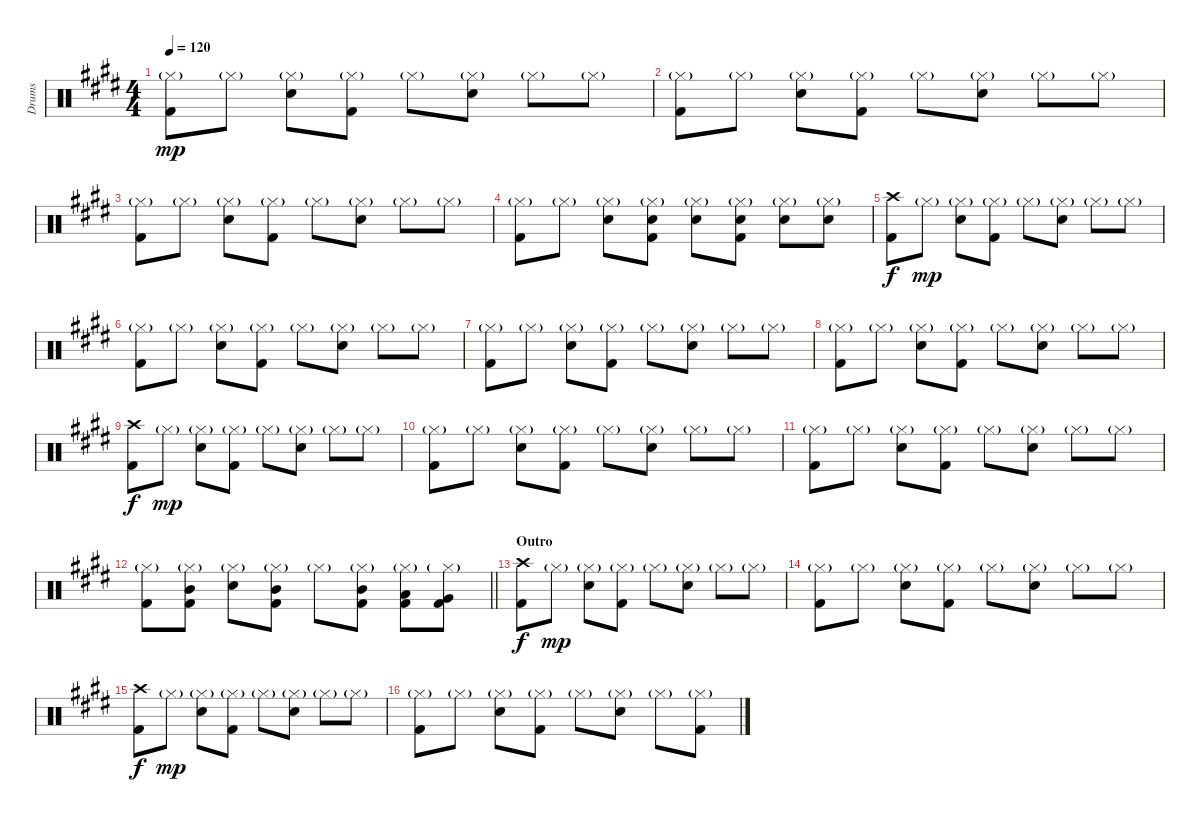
\track ("Drums" "Drums") {instrument percussion}
\staff {score}
\articulation defaults
\ts (4 4)
\tempo 120
\clef neutral
\ks e
("Hi-Hat (closed)"{g} "Kick (hit) 2").8{dy mp} "Hi-Hat (closed)"{g}.8 ("Hi-Hat (closed)"{g} "Snare (hit) 2").8 ("Hi-Hat (closed)"{g} "Kick (hit) 2").8 "Hi-Hat (closed)"{g}.8 ("Hi-Hat (closed)"{g} "Snare (hit) 2").8 "Hi-Hat (closed)"{g}.8 "Hi-Hat (closed)"{g}.8 |
("Hi-Hat (closed)"{g} "Kick (hit) 2").8 "Hi-Hat (closed)"{g}.8 ("Hi-Hat (closed)"{g} "Snare (hit) 2").8 ("Hi-Hat (closed)"{g} "Kick (hit) 2").8 "Hi-Hat (closed)"{g}.8 ("Hi-Hat (closed)"{g} "Snare (hit) 2").8 "Hi-Hat (closed)"{g}.8 "Hi-Hat (closed)"{g}.8 |
("Hi-Hat (closed)"{g} "Kick (hit) 2").8 "Hi-Hat (closed)"{g}.8 ("Hi-Hat (closed)"{g} "Snare (hit) 2").8 ("Hi-Hat (closed)"{g} "Kick (hit) 2").8 "Hi-Hat (closed)"{g}.8 ("Hi-Hat (closed)"{g} "Snare (hit) 2").8 "Hi-Hat (closed)"{g}.8 "Hi-Hat (closed)"{g}.8 |
("Hi-Hat (closed)"{g} "Kick (hit) 2").8 "Hi-Hat (closed)"{g}.8 ("Hi-Hat (closed)"{g} "Snare (hit) 2").8 ("Hi-Hat (closed)"{g} "Snare (hit) 2" "Kick (hit) 2").8 ("Hi-Hat (closed)"{g} "Snare (hit) 2").8 ("Hi-Hat (closed)"{g} "Snare (hit) 2" "Kick (hit) 2").8 ("Hi-Hat (closed)"{g} "Snare (hit) 2").8 ("Hi-Hat (closed)"{g} "Snare (hit) 2").8 |
("Crash high (hit)" "Kick (hit) 2").8{dy f} "Hi-Hat (closed)"{g}.8{dy mp} ("Hi-Hat (closed)"{g} "Snare (hit) 2").8 ("Hi-Hat (closed)"{g} "Kick (hit) 2").8 "Hi-Hat (closed)"{g}.8 ("Hi-Hat (closed)"{g} "Snare (hit) 2").8 "Hi-Hat (closed)"{g}.8 "Hi-Hat (closed)"{g}.8 |
("Hi-Hat (closed)"{g} "Kick (hit) 2").8 "Hi-Hat (closed)"{g}.8 ("Hi-Hat (closed)"{g} "Snare (hit) 2").8 ("Hi-Hat (closed)"{g} "Kick (hit) 2").8 "Hi-Hat (closed)"{g}.8 ("Hi-Hat (closed)"{g} "Snare (hit) 2").8 "Hi-Hat (closed)"{g}.8 "Hi-Hat (closed)"{g}.8 |
("Hi-Hat (closed)"{g} "Kick (hit) 2").8 "Hi-Hat (closed)"{g}.8 ("Hi-Hat (closed)"{g} "Snare (hit) 2").8 ("Hi-Hat (closed)"{g} "Kick (hit) 2").8 "Hi-Hat (closed)"{g}.8 ("Hi-Hat (closed)"{g} "Snare (hit) 2").8 "Hi-Hat (closed)"{g}.8 "Hi-Hat (closed)"{g}.8 |
("Hi-Hat (closed)"{g} "Kick (hit) 2").8 "Hi-Hat (closed)"{g}.8 ("Hi-Hat (closed)"{g} "Snare (hit) 2").8 ("Hi-Hat (closed)"{g} "Kick (hit) 2").8 "Hi-Hat (closed)"{g}.8 ("Hi-Hat (closed)"{g} "Snare (hit) 2").8 "Hi-Hat (closed)"{g}.8 "Hi-Hat (closed)"{g}.8 |
("Crash high (hit)" "Kick (hit) 2").8{dy f} "Hi-Hat (closed)"{g}.8{dy mp} ("Hi-Hat (closed)"{g} "Snare (hit) 2").8 ("Hi-Hat (closed)"{g} "Kick (hit) 2").8 "Hi-Hat (closed)"{g}.8 ("Hi-Hat (closed)"{g} "Snare (hit) 2").8 "Hi-Hat (closed)"{g}.8 "Hi-Hat (closed)"{g}.8 |
("Hi-Hat (closed)"{g} "Kick (hit) 2").8 "Hi-Hat (closed)"{g}.8 ("Hi-Hat (closed)"{g} "Snare (hit) 2").8 ("Hi-Hat (closed)"{g} "Kick (hit) 2").8 "Hi-Hat (closed)"{g}.8 ("Hi-Hat (closed)"{g} "Snare (hit) 2").8 "Hi-Hat (closed)"{g}.8 "Hi-Hat (closed)"{g}.8 |
("Hi-Hat (closed)"{g} "Kick (hit) 2").8 "Hi-Hat (closed)"{g}.8 ("Hi-Hat (closed)"{g} "Snare (hit) 2").8 ("Hi-Hat (closed)"{g} "Kick (hit) 2").8 "Hi-Hat (closed)"{g}.8 ("Hi-Hat (closed)"{g} "Snare (hit) 2").8 "Hi-Hat (closed)"{g}.8 "Hi-Hat (closed)"{g}.8 |
\barLineRight lightlight
("Hi-Hat (closed)"{g} "Kick (hit) 2").8 ("Hi-Hat (closed)"{g} "Mid Tom (hit)" "Kick (hit) 2").8 ("Hi-Hat (closed)"{g} "Snare (hit) 2").8 ("Hi-Hat (closed)"{g} "Mid Tom (hit)" "Kick (hit) 2").8 "Hi-Hat (closed)"{g}.8 ("Hi-Hat (closed)"{g} "Mid Tom (hit)" "Kick (hit) 2").8 ("Hi-Hat (closed)"{g} "Low Tom (hit)" "Kick (hit) 2").8 ("Hi-Hat (closed)"{g} "Very Low Tom (hit)" "Kick (hit) 2").8 |
\section ("" "Outro")
("Crash high (hit)" "Kick (hit) 2").8{dy f} "Hi-Hat (closed)"{g}.8{dy mp} ("Hi-Hat (closed)"{g} "Snare (hit) 2").8 ("Hi-Hat (closed)"{g} "Kick (hit) 2").8 "Hi-Hat (closed)"{g}.8 ("Hi-Hat (closed)"{g} "Snare (hit) 2").8 "Hi-Hat (closed)"{g}.8 "Hi-Hat (closed)"{g}.8 |
("Hi-Hat (closed)"{g} "Kick (hit) 2").8 "Hi-Hat (closed)"{g}.8 ("Hi-Hat (closed)"{g} "Snare (hit) 2").8 ("Hi-Hat (closed)"{g} "Kick (hit) 2").8 "Hi-Hat (closed)"{g}.8 ("Hi-Hat (closed)"{g} "Snare (hit) 2").8 "Hi-Hat (closed)"{g}.8 "Hi-Hat (closed)"{g}.8 |
("Crash high (hit)" "Kick (hit) 2").8{dy f} "Hi-Hat (closed)"{g}.8{dy mp} ("Hi-Hat (closed)"{g} "Snare (hit) 2").8 ("Hi-Hat (closed)"{g} "Kick (hit) 2").8 "Hi-Hat (closed)"{g}.8 ("Hi-Hat (closed)"{g} "Snare (hit) 2").8 "Hi-Hat (closed)"{g}.8 "Hi-Hat (closed)"{g}.8 |
("Hi-Hat (closed)"{g} "Kick (hit) 2").8 "Hi-Hat (closed)"{g}.8 ("Hi-Hat (closed)"{g} "Snare (hit) 2").8 ("Hi-Hat (closed)"{g} "Kick (hit) 2").8 "Hi-Hat (closed)"{g}.8 ("Hi-Hat (closed)"{g} "Snare (hit) 2").8 "Hi-Hat (closed)"{g}.8 ("Hi-Hat (closed)"{g} "Kick (hit) 2").8
